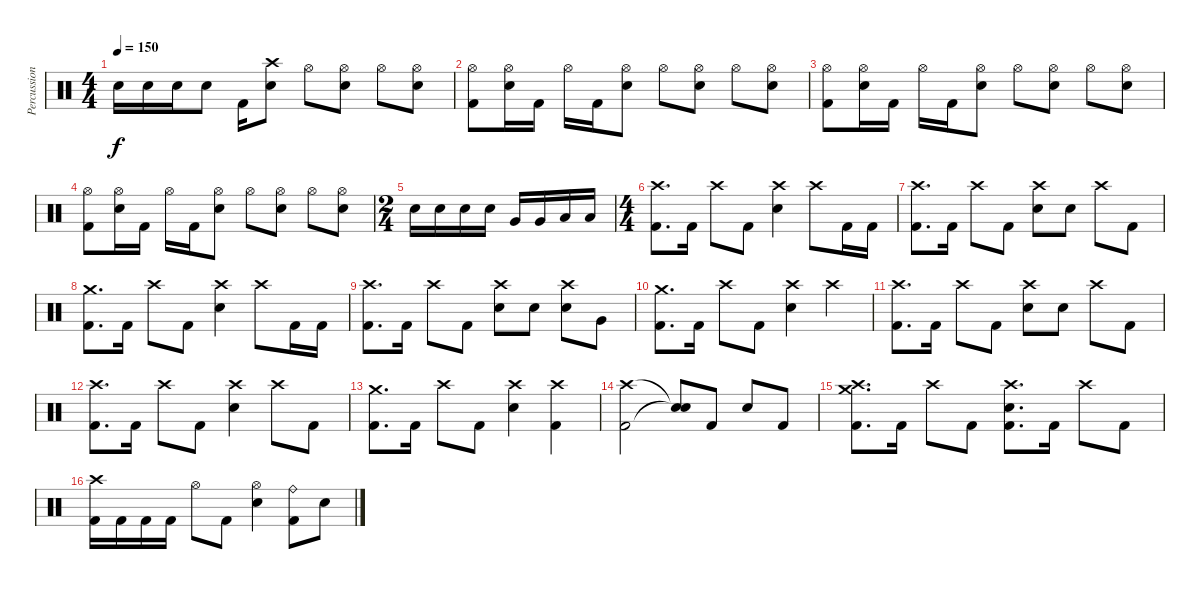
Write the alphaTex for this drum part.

\track ("Percussion" "Percussion") {instrument percussion}
\staff {score}
\articulation defaults
\ts (4 4)
\tempo 150
\clef neutral
\ks c "Electric Snare (hit)".16{dy f} "Electric Snare (hit)".16 "Electric Snare (hit)".16 "Electric Snare (hit)".8 "Kick (hit) 2".16
("Crash high (hit)" "Electric Snare (hit)").8 "Hi-Hat (open)".8 ("Hi-Hat (open)" "Electric Snare (hit)").8 "Hi-Hat (open)".8 ("Hi-Hat (open)" "Electric Snare (hit)").8 |
("Hi-Hat (open)" "Kick (hit) 2").8 ("Hi-Hat (open)" "Electric Snare (hit)").16 "Kick (hit) 2".16 "Hi-Hat (open)".16 "Kick (hit) 2".16 ("Hi-Hat (open)" "Electric Snare (hit)").8 "Hi-Hat (open)".8 ("Hi-Hat (open)" "Electric Snare (hit)").8 "Hi-Hat (open)".8 ("Hi-Hat (open)" "Electric Snare (hit)").8 |
("Hi-Hat (open)" "Kick (hit) 2").8 ("Hi-Hat (open)" "Electric Snare (hit)").16 "Kick (hit) 2".16 "Hi-Hat (open)".16 "Kick (hit) 2".16 ("Hi-Hat (open)" "Electric Snare (hit)").8 "Hi-Hat (open)".8 ("Hi-Hat (open)" "Electric Snare (hit)").8 "Hi-Hat (open)".8 ("Hi-Hat (open)" "Electric Snare (hit)").8 |
("Hi-Hat (open)" "Kick (hit) 2").8 ("Hi-Hat (open)" "Electric Snare (hit)").16 "Kick (hit) 2".16 "Hi-Hat (open)".16 "Kick (hit) 2".16 ("Hi-Hat (open)" "Electric Snare (hit)").8 "Hi-Hat (open)".8 ("Hi-Hat (open)" "Electric Snare (hit)").8 "Hi-Hat (open)".8 ("Hi-Hat (open)" "Electric Snare (hit)").8 |
\ts (2 4)
"Electric Snare (hit)".16 "Electric Snare (hit)".16 "Electric Snare (hit)".16 "Electric Snare (hit)".16 "Very Low Tom (hit)".16 "Very Low Tom (hit)".16 "Low Floor Tom (hit)".16 "Low Floor Tom (hit)".16 |
\ts (4 4)
("Crash high (hit)" "Kick (hit) 2").8{d} "Kick (hit) 2".16 "Crash high (hit)".8 "Kick (hit) 2".8 ("Crash high (hit)" "Electric Snare (hit)").4 "Crash high (hit)".8 "Kick (hit) 2".16 "Kick (hit) 2".16 |
("Crash high (hit)" "Kick (hit) 2").8{d} "Kick (hit) 2".16 "Crash high (hit)".8 "Kick (hit) 2".8 ("Crash high (hit)" "Electric Snare (hit)").8 "Electric Snare (hit)".8 "Crash high (hit)".8 "Kick (hit) 2".8 |
("Crash medium (hit)" "Kick (hit) 2").8{d} "Kick (hit) 2".16 "Crash high (hit)".8 "Kick (hit) 2".8 ("Crash high (hit)" "Electric Snare (hit)").4 "Crash high (hit)".8 "Kick (hit) 2".16 "Kick (hit) 2".16 |
("Crash high (hit)" "Kick (hit) 2").8{d} "Kick (hit) 2".16 "Crash high (hit)".8 "Kick (hit) 2".8 ("Crash high (hit)" "Electric Snare (hit)").8 "Electric Snare (hit)".8 ("Crash high (hit)" "Electric Snare (hit)").8 "Very Low Tom (hit)".8 |
("Crash medium (hit)" "Kick (hit) 2").8{d} "Kick (hit) 2".16 "Crash high (hit)".8 "Kick (hit) 2".8 ("Crash high (hit)" "Electric Snare (hit)").4 "Crash high (hit)".4 |
("Crash high (hit)" "Kick (hit) 2").8{d} "Kick (hit) 2".16 "Crash high (hit)".8 "Kick (hit) 2".8 ("Crash high (hit)" "Electric Snare (hit)").8 "Electric Snare (hit)".8 "Crash high (hit)".8 "Kick (hit) 2".8 |
("Crash high (hit)" "Kick (hit) 2").8{d} "Kick (hit) 2".16 "Crash high (hit)".8 "Kick (hit) 2".8 ("Crash high (hit)" "Electric Snare (hit)").4 "Crash high (hit)".8 "Kick (hit) 2".8 |
("Crash medium (hit)" "Kick (hit) 2").8{d} "Kick (hit) 2".16 "Crash high (hit)".8 "Kick (hit) 2".8 ("Crash high (hit)" "Electric Snare (hit)").4 ("Crash high (hit)" "Kick (hit) 2").4 |
("Crash high (hit)" "Kick (hit) 2").2 ("Snare (hit)"{t} "Snare (hit)"{t}).8 "Kick (hit) 2".8 "Electric Snare (hit)".8 "Kick (hit) 2".8 |
("Crash high (hit)" "Crash medium (hit)" "Kick (hit) 2").8{d} "Kick (hit) 2".16 "Crash high (hit)".8 "Kick (hit) 2".8 ("Crash high (hit)" "Electric Snare (hit)" "Kick (hit) 2").8{d} "Kick (hit) 2".16 "Crash high (hit)".8 "Kick (hit) 2".8 |
("Crash high (hit)" "Kick (hit) 2").16 "Kick (hit) 2".16 "Kick (hit) 2".16 "Kick (hit) 2".16 "Hi-Hat (open)".8 "Kick (hit) 2".8 ("Hi-Hat (open)" "Electric Snare (hit)").4 ("Ride (bell)" "Kick (hit) 2").8 "Electric Snare (hit)".8
